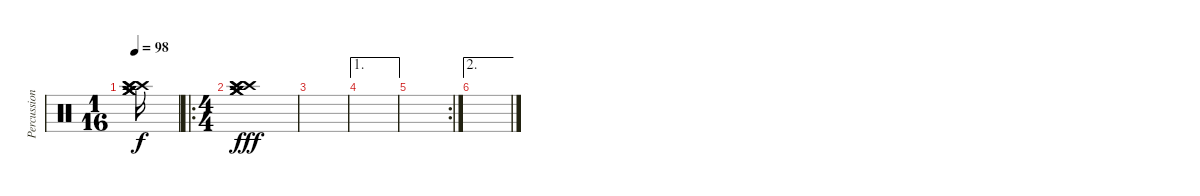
\track ("Percussion" "Percussion") {instrument percussion}
\staff {score}
\articulation defaults
\ts (1 16)
\tempo 98
\clef neutral
\ks c
("Crash high (hit)" "Crash high (hit)" "Crash high (hit)" "Crash medium (hit)" "Crash medium (hit)" "Crash medium (hit)").16{dy f} |
\ro
\ts (4 4)
("Crash high (hit)" "Crash high (hit)" "Crash high (hit)" "Crash medium (hit)" "Crash medium (hit)" "Crash medium (hit)").1{dy fff} |
|
\ae 1
|
\rc 2
|
\ae 2
